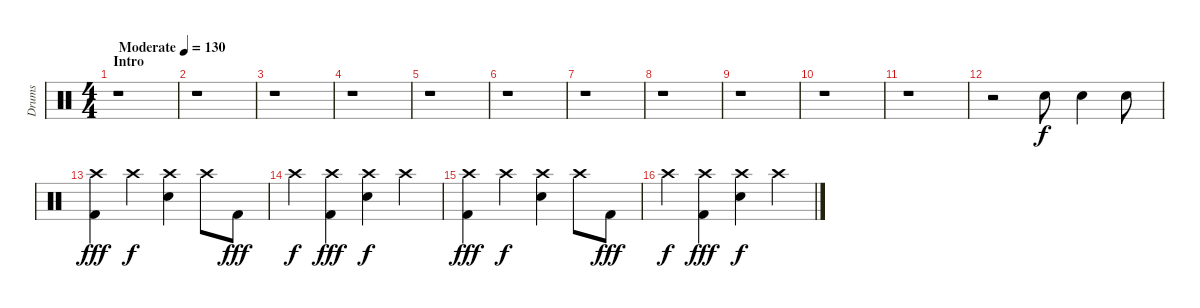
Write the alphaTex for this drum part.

\track ("Drums" "Drums") {instrument percussion}
\staff {score}
\articulation defaults
\ts (4 4)
\section ("" "Intro ")
\tempo (130 "Moderate")
\clef neutral
\ks c
r.1{dy f} |
r.1 |
r.1 |
r.1 |
r.1 |
r.1 |
r.1 |
r.1 |
r.1 |
r.1 |
r.1 |
r.2 "Electric Snare (hit)".8 "Electric Snare (hit)".4 "Electric Snare (hit)".8 |
("Crash high (hit)" "Kick (hit) 2").4{dy fff} "Crash high (hit)".4{dy f} ("Crash high (hit)" "Electric Snare (hit)").4 "Crash high (hit)".8 "Kick (hit) 2".8{dy fff} |
"Crash high (hit)".4{dy f} ("Crash high (hit)" "Kick (hit) 2").4{dy fff} ("Crash high (hit)" "Electric Snare (hit)").4{dy f} "Crash high (hit)".4 |
("Crash high (hit)" "Kick (hit) 2").4{dy fff} "Crash high (hit)".4{dy f} ("Crash high (hit)" "Electric Snare (hit)").4 "Crash high (hit)".8 "Kick (hit) 2".8{dy fff} |
"Crash high (hit)".4{dy f} ("Crash high (hit)" "Kick (hit) 2").4{dy fff} ("Crash high (hit)" "Electric Snare (hit)").4{dy f} "Crash high (hit)".4
